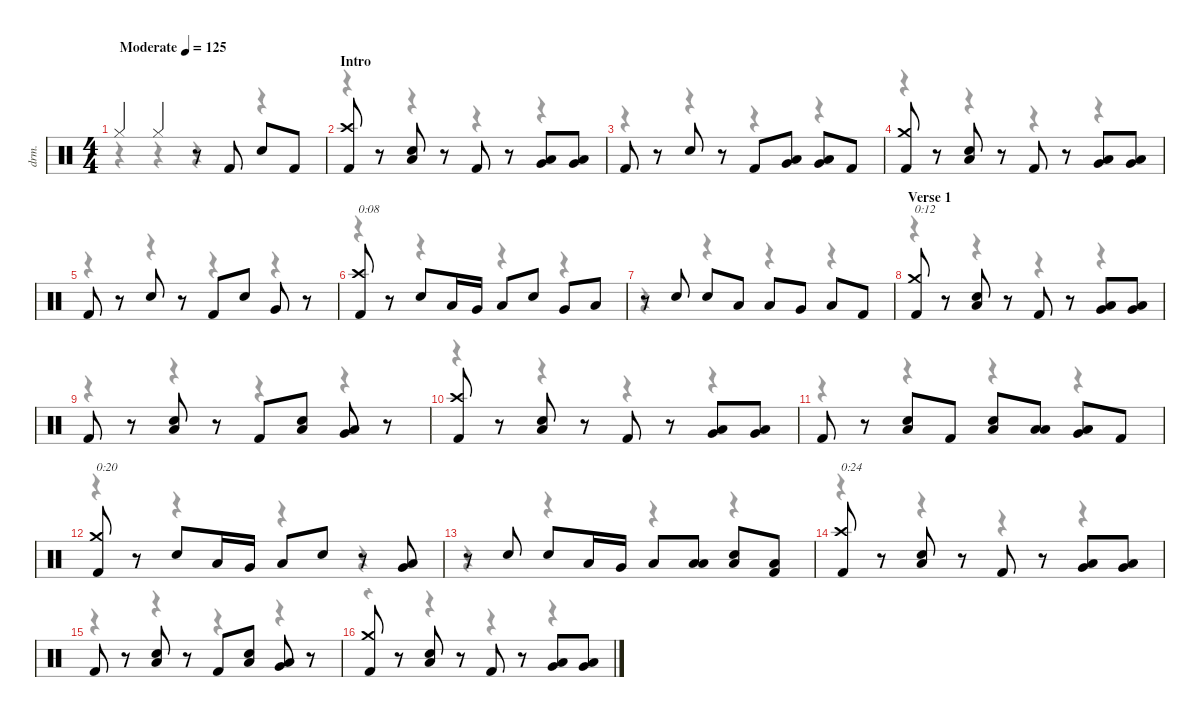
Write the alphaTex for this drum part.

\defaultSystemsLayout 4
\hideDynamics
\bracketExtendMode nobrackets
\otherSystemsTrackNameOrientation horizontal
\track ("Drums" "drm.") {instrument percussion}
\staff {score}
\articulation defaults
\voice
\ts (4 4)
\beaming (8 2 2 2 2)
\tempo (125 "Moderate")
\clef neutral
\ks c "Hi-Hat (closed)".4{dy f beam Up} "Hi-Hat (closed)".4{beam Up}
r.8{beam Up} "Kick (hit) 2".8{beam Up} "Snare (hit) 2".8{beam Up} "Kick (hit) 2".8{beam Up} |
\section ("" "Intro")
("Crash high (hit)" "Kick (hit) 2").8{beam Up} r.8{beam Up} ("Low Floor Tom (hit)" "Snare (hit) 2").8{beam Up} r.8{beam Up} "Kick (hit) 2".8{beam Up} r.8{beam Up} ("Low Floor Tom (hit)" "Very Low Tom (hit)").8{beam Up} ("Low Floor Tom (hit)" "Very Low Tom (hit)").8{beam Up} |
"Kick (hit) 2".8{beam Up} r.8{beam Up} "Snare (hit) 2".8{beam Up} r.8{beam Up} "Kick (hit) 2".8{beam Up} ("Low Floor Tom (hit)" "Very Low Tom (hit)").8{beam Up} ("Low Floor Tom (hit)" "Very Low Tom (hit)").8{beam Up} "Kick (hit) 2".8{beam Up} |
("Crash medium (hit)" "Kick (hit) 2").8{beam Up} r.8{beam Up} ("Low Floor Tom (hit)" "Snare (hit) 2").8{beam Up} r.8{beam Up} "Kick (hit) 2".8{beam Up} r.8{beam Up} ("Low Floor Tom (hit)" "Very Low Tom (hit)").8{beam Up} ("Low Floor Tom (hit)" "Very Low Tom (hit)").8{beam Up} |
"Kick (hit) 2".8{beam Up} r.8{beam Up} "Snare (hit) 2".8{beam Up} r.8{beam Up} "Kick (hit) 2".8{beam Up} "Snare (hit) 2".8{beam Up} "Very Low Tom (hit)".8{beam Up} r.8{beam Up} |
("Crash high (hit)" "Kick (hit) 2").8{txt "0:08" beam Up} r.8{beam Up} "Snare (hit) 2".8{beam Up} "Low Tom (hit)".16{beam Up} "Very Low Tom (hit)".16{beam Up} "Low Floor Tom (hit)".8{beam Up} "Snare (hit) 2".8{beam Up} "Very Low Tom (hit)".8{beam Up} "Low Floor Tom (hit)".8{beam Up} |
r.8{beam Up} "Snare (hit) 2".8{beam Up} "Snare (hit) 2".8{beam Up} "Low Floor Tom (hit)".8{beam Up} "Low Tom (hit)".8{beam Up} "Very Low Tom (hit)".8{beam Up} "Low Floor Tom (hit)".8{beam Up} "Kick (hit) 2".8{beam Up} |
\section ("" "Verse 1")
("Crash medium (hit)" "Kick (hit) 2").8{txt "0:12" beam Up} r.8{beam Up} ("Low Floor Tom (hit)" "Snare (hit) 2").8{beam Up} r.8{beam Up} "Kick (hit) 2".8{beam Up} r.8{beam Up} ("Low Floor Tom (hit)" "Very Low Tom (hit)").8{beam Up} ("Low Floor Tom (hit)" "Very Low Tom (hit)").8{beam Up} |
"Kick (hit) 2".8{beam Up} r.8{beam Up} ("Low Floor Tom (hit)" "Snare (hit) 2").8{beam Up} r.8{beam Up} "Kick (hit) 2".8{beam Up} ("Low Floor Tom (hit)" "Snare (hit) 2").8{beam Up} ("Low Floor Tom (hit)" "Very Low Tom (hit)").8{beam Up} r.8{beam Up} |
("Crash high (hit)" "Kick (hit) 2").8{beam Up} r.8{beam Up} ("Low Floor Tom (hit)" "Snare (hit) 2").8{beam Up} r.8{beam Up} "Kick (hit) 2".8{beam Up} r.8{beam Up} ("Low Floor Tom (hit)" "Very Low Tom (hit)").8{beam Up} ("Low Floor Tom (hit)" "Very Low Tom (hit)").8{beam Up} |
"Kick (hit) 2".8{beam Up} r.8{beam Up} ("Low Floor Tom (hit)" "Snare (hit) 2").8{beam Up} "Kick (hit) 2".8{beam Up} ("Low Floor Tom (hit)" "Snare (hit) 2").8{beam Up} ("Low Floor Tom (hit)" "Low Tom (hit)").8{beam Up} ("Low Floor Tom (hit)" "Very Low Tom (hit)").8{beam Up} "Kick (hit) 2".8{beam Up} |
("Crash medium (hit)" "Kick (hit) 2").8{txt "0:20" beam Up} r.8{beam Up} "Snare (hit) 2".8{beam Up} "Low Tom (hit)".16{beam Up} "Very Low Tom (hit)".16{beam Up} "Low Floor Tom (hit)".8{beam Up} "Snare (hit) 2".8{beam Up} r.8{beam Up} ("Very Low Tom (hit)" "Low Floor Tom (hit)").8{beam Up} |
r.8{beam Up} "Snare (hit) 2".8{beam Up} "Snare (hit) 2".8{beam Up} "Low Tom (hit)".16{beam Up} "Very Low Tom (hit)".16{beam Up} "Low Floor Tom (hit)".8{beam Up} ("Low Floor Tom (hit)" "Low Tom (hit)").8{beam Up} ("Low Floor Tom (hit)" "Snare (hit) 2").8{beam Up} ("Low Floor Tom (hit)" "Kick (hit) 2").8{beam Up} |
("Crash high (hit)" "Kick (hit) 2").8{txt "0:24" beam Up} r.8{beam Up} ("Low Floor Tom (hit)" "Snare (hit) 2").8{beam Up} r.8{beam Up} "Kick (hit) 2".8{beam Up} r.8{beam Up} ("Low Floor Tom (hit)" "Very Low Tom (hit)").8{beam Up} ("Low Floor Tom (hit)" "Very Low Tom (hit)").8{beam Up} |
"Kick (hit) 2".8{beam Up} r.8{beam Up} ("Low Floor Tom (hit)" "Snare (hit) 2").8{beam Up} r.8{beam Up} "Kick (hit) 2".8{beam Up} ("Low Floor Tom (hit)" "Snare (hit) 2").8{beam Up} ("Low Floor Tom (hit)" "Very Low Tom (hit)").8{beam Up} r.8{beam Up} |
("Crash medium (hit)" "Kick (hit) 2").8{beam Up} r.8{beam Up} ("Low Floor Tom (hit)" "Snare (hit) 2").8{beam Up} r.8{beam Up} "Kick (hit) 2".8{beam Up} r.8{beam Up} ("Low Floor Tom (hit)" "Very Low Tom (hit)").8{beam Up} ("Low Floor Tom (hit)" "Very Low Tom (hit)").8{beam Up}
\voice
\clef neutral
\ottava regular
\simile none
\ks c
r.4{dy mf beam Down} r.4{beam Down} r.4{beam Down} r.4{beam Down} |
r.4{beam Down} r.4{beam Down} r.4{beam Down} r.4{beam Down} |
r.4{beam Down} r.4{beam Down} r.4{beam Down} r.4{beam Down} |
r.4{beam Down} r.4{beam Down} r.4{beam Down} r.4{beam Down} |
r.4{beam Down} r.4{beam Down} r.4{beam Down} r.4{beam Down} |
r.4{beam Down} r.4{beam Down} r.4{beam Down} r.4{beam Down} |
r.4{beam Down} r.4{beam Down} r.4{beam Down} r.4{beam Down} |
r.4{beam Down} r.4{beam Down} r.4{beam Down} r.4{beam Down} |
r.4{beam Down} r.4{beam Down} r.4{beam Down} r.4{beam Down} |
r.4{beam Down} r.4{beam Down} r.4{beam Down} r.4{beam Down} |
r.4{beam Down} r.4{beam Down} r.4{beam Down} r.4{beam Down} |
r.4{beam Down} r.4{beam Down} r.4{beam Down} r.4{beam Down} |
r.4{beam Down} r.4{beam Down} r.4{beam Down} r.4{beam Down} |
r.4{beam Down} r.4{beam Down} r.4{beam Down} r.4{beam Down} |
r.4{beam Down} r.4{beam Down} r.4{beam Down} r.4{beam Down} |
r.4{beam Down} r.4{beam Down} r.4{beam Down} r.4{beam Down}
